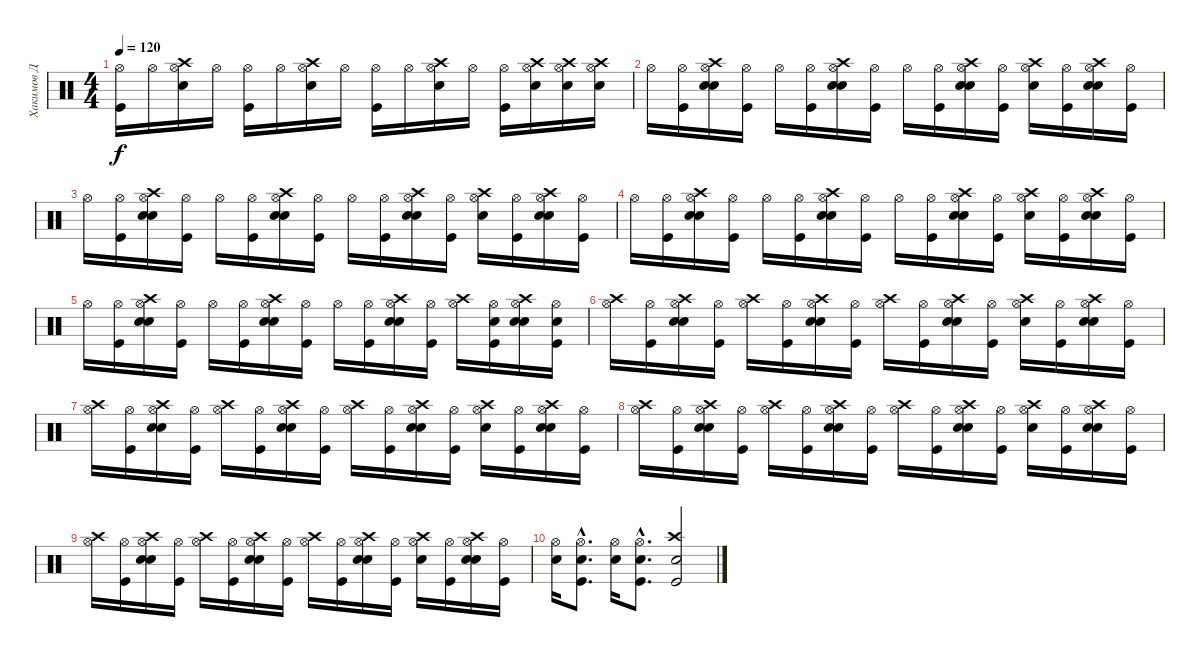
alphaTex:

\track ("Хакимов Д" "Хакимов Д") {instrument percussion}
\staff {score}
\articulation defaults
\ts (4 4)
\tempo 120
\clef neutral
\ks c
("Hi-Hat (open)" "Kick (hit)").16{dy f} "Hi-Hat (open)".16 ("Hi-Hat (open)" "Electric Snare (hit)" "Crash high (hit)").16 "Hi-Hat (open)".16 ("Hi-Hat (open)" "Kick (hit)").16 "Hi-Hat (open)".16 ("Hi-Hat (open)" "Electric Snare (hit)" "Crash high (hit)").16 "Hi-Hat (open)".16 ("Hi-Hat (open)" "Kick (hit)").16 "Hi-Hat (open)".16 ("Hi-Hat (open)" "Electric Snare (hit)" "Crash high (hit)").16 "Hi-Hat (open)".16 ("Hi-Hat (open)" "Kick (hit)").16 ("Hi-Hat (open)" "Snare (hit) 2" "Crash high (hit)").16 ("Hi-Hat (open)" "Electric Snare (hit)" "Crash high (hit)").16 ("Hi-Hat (open)" "Snare (hit) 2" "Crash high (hit)").16 |
"Hi-Hat (open)".16 ("Hi-Hat (open)" "Kick (hit)").16 ("Hi-Hat (open)" "Snare (hit) 2" "Crash high (hit)" "Electric Snare (hit)").16 ("Hi-Hat (open)" "Kick (hit)").16 "Hi-Hat (open)".16 ("Hi-Hat (open)" "Kick (hit)").16 ("Hi-Hat (open)" "Snare (hit) 2" "Crash high (hit)" "Electric Snare (hit)").16 ("Hi-Hat (open)" "Kick (hit)").16 "Hi-Hat (open)".16 ("Hi-Hat (open)" "Kick (hit)").16 ("Hi-Hat (open)" "Snare (hit) 2" "Crash high (hit)" "Electric Snare (hit)").16 ("Hi-Hat (open)" "Kick (hit)").16 ("Hi-Hat (open)" "Snare (hit) 2" "Crash high (hit)").16 ("Hi-Hat (open)" "Kick (hit)").16 ("Hi-Hat (open)" "Snare (hit) 2" "Crash high (hit)" "Electric Snare (hit)").16 ("Hi-Hat (open)" "Kick (hit)").16 |
"Hi-Hat (open)".16 ("Hi-Hat (open)" "Kick (hit)").16 ("Hi-Hat (open)" "Snare (hit) 2" "Crash high (hit)" "Electric Snare (hit)").16 ("Hi-Hat (open)" "Kick (hit)").16 "Hi-Hat (open)".16 ("Hi-Hat (open)" "Kick (hit)").16 ("Hi-Hat (open)" "Snare (hit) 2" "Crash high (hit)" "Electric Snare (hit)").16 ("Hi-Hat (open)" "Kick (hit)").16 "Hi-Hat (open)".16 ("Hi-Hat (open)" "Kick (hit)").16 ("Hi-Hat (open)" "Snare (hit) 2" "Crash high (hit)" "Electric Snare (hit)").16 ("Hi-Hat (open)" "Kick (hit)").16 ("Hi-Hat (open)" "Snare (hit) 2" "Crash high (hit)").16 ("Hi-Hat (open)" "Kick (hit)").16 ("Hi-Hat (open)" "Snare (hit) 2" "Crash high (hit)" "Electric Snare (hit)").16 ("Hi-Hat (open)" "Kick (hit)").16 |
"Hi-Hat (open)".16 ("Hi-Hat (open)" "Kick (hit)").16 ("Hi-Hat (open)" "Snare (hit) 2" "Crash high (hit)" "Electric Snare (hit)").16 ("Hi-Hat (open)" "Kick (hit)").16 "Hi-Hat (open)".16 ("Hi-Hat (open)" "Kick (hit)").16 ("Hi-Hat (open)" "Snare (hit) 2" "Crash high (hit)" "Electric Snare (hit)").16 ("Hi-Hat (open)" "Kick (hit)").16 "Hi-Hat (open)".16 ("Hi-Hat (open)" "Kick (hit)").16 ("Hi-Hat (open)" "Snare (hit) 2" "Crash high (hit)" "Electric Snare (hit)").16 ("Hi-Hat (open)" "Kick (hit)").16 ("Hi-Hat (open)" "Snare (hit) 2" "Crash high (hit)").16 ("Hi-Hat (open)" "Kick (hit)").16 ("Hi-Hat (open)" "Snare (hit) 2" "Crash high (hit)" "Electric Snare (hit)").16 ("Hi-Hat (open)" "Kick (hit)").16 |
"Hi-Hat (open)".16 ("Hi-Hat (open)" "Kick (hit)").16 ("Hi-Hat (open)" "Snare (hit) 2" "Crash high (hit)" "Electric Snare (hit)").16 ("Hi-Hat (open)" "Kick (hit)").16 "Hi-Hat (open)".16 ("Hi-Hat (open)" "Kick (hit)").16 ("Hi-Hat (open)" "Snare (hit) 2" "Crash high (hit)" "Electric Snare (hit)").16 ("Hi-Hat (open)" "Kick (hit)").16 "Hi-Hat (open)".16 ("Hi-Hat (open)" "Kick (hit)").16 ("Hi-Hat (open)" "Snare (hit) 2" "Crash high (hit)" "Electric Snare (hit)").16 ("Hi-Hat (open)" "Kick (hit)").16 ("Hi-Hat (open)" "Crash high (hit)").16 ("Hi-Hat (open)" "Kick (hit)" "Snare (hit) 2").16 ("Hi-Hat (open)" "Snare (hit) 2" "Crash high (hit)" "Electric Snare (hit)").16 ("Hi-Hat (open)" "Kick (hit)" "Snare (hit) 2").16 |
("Hi-Hat (open)" "Crash high (hit)").16 ("Hi-Hat (open)" "Kick (hit)").16 ("Hi-Hat (open)" "Snare (hit) 2" "Crash high (hit)" "Electric Snare (hit)").16 ("Hi-Hat (open)" "Kick (hit)").16 ("Hi-Hat (open)" "Crash high (hit)").16 ("Hi-Hat (open)" "Kick (hit)").16 ("Hi-Hat (open)" "Snare (hit) 2" "Crash high (hit)" "Electric Snare (hit)").16 ("Hi-Hat (open)" "Kick (hit)").16 ("Hi-Hat (open)" "Crash high (hit)").16 ("Hi-Hat (open)" "Kick (hit)").16 ("Hi-Hat (open)" "Snare (hit) 2" "Crash high (hit)" "Electric Snare (hit)").16 ("Hi-Hat (open)" "Kick (hit)").16 ("Hi-Hat (open)" "Snare (hit) 2" "Crash high (hit)").16 ("Hi-Hat (open)" "Kick (hit)").16 ("Hi-Hat (open)" "Snare (hit) 2" "Crash high (hit)" "Electric Snare (hit)").16 ("Hi-Hat (open)" "Kick (hit)").16 |
("Hi-Hat (open)" "Crash high (hit)").16 ("Hi-Hat (open)" "Kick (hit)").16 ("Hi-Hat (open)" "Snare (hit) 2" "Crash high (hit)" "Electric Snare (hit)").16 ("Hi-Hat (open)" "Kick (hit)").16 ("Hi-Hat (open)" "Crash high (hit)").16 ("Hi-Hat (open)" "Kick (hit)").16 ("Hi-Hat (open)" "Snare (hit) 2" "Crash high (hit)" "Electric Snare (hit)").16 ("Hi-Hat (open)" "Kick (hit)").16 ("Hi-Hat (open)" "Crash high (hit)").16 ("Hi-Hat (open)" "Kick (hit)").16 ("Hi-Hat (open)" "Snare (hit) 2" "Crash high (hit)" "Electric Snare (hit)").16 ("Hi-Hat (open)" "Kick (hit)").16 ("Hi-Hat (open)" "Snare (hit) 2" "Crash high (hit)").16 ("Hi-Hat (open)" "Kick (hit)").16 ("Hi-Hat (open)" "Snare (hit) 2" "Crash high (hit)" "Electric Snare (hit)").16 ("Hi-Hat (open)" "Kick (hit)").16 |
("Hi-Hat (open)" "Crash high (hit)").16 ("Hi-Hat (open)" "Kick (hit)").16 ("Hi-Hat (open)" "Snare (hit) 2" "Crash high (hit)" "Electric Snare (hit)").16 ("Hi-Hat (open)" "Kick (hit)").16 ("Hi-Hat (open)" "Crash high (hit)").16 ("Hi-Hat (open)" "Kick (hit)").16 ("Hi-Hat (open)" "Snare (hit) 2" "Crash high (hit)" "Electric Snare (hit)").16 ("Hi-Hat (open)" "Kick (hit)").16 ("Hi-Hat (open)" "Crash high (hit)").16 ("Hi-Hat (open)" "Kick (hit)").16 ("Hi-Hat (open)" "Snare (hit) 2" "Crash high (hit)" "Electric Snare (hit)").16 ("Hi-Hat (open)" "Kick (hit)").16 ("Hi-Hat (open)" "Snare (hit) 2" "Crash high (hit)").16 ("Hi-Hat (open)" "Kick (hit)").16 ("Hi-Hat (open)" "Snare (hit) 2" "Crash high (hit)" "Electric Snare (hit)").16 ("Hi-Hat (open)" "Kick (hit)").16 |
("Hi-Hat (open)" "Crash high (hit)").16 ("Hi-Hat (open)" "Kick (hit)").16 ("Hi-Hat (open)" "Snare (hit) 2" "Crash high (hit)" "Electric Snare (hit)").16 ("Hi-Hat (open)" "Kick (hit)").16 ("Hi-Hat (open)" "Crash high (hit)").16 ("Hi-Hat (open)" "Kick (hit)").16 ("Hi-Hat (open)" "Snare (hit) 2" "Crash high (hit)" "Electric Snare (hit)").16 ("Hi-Hat (open)" "Kick (hit)").16 ("Hi-Hat (open)" "Crash high (hit)").16 ("Hi-Hat (open)" "Kick (hit)").16 ("Hi-Hat (open)" "Snare (hit) 2" "Crash high (hit)" "Electric Snare (hit)").16 ("Hi-Hat (open)" "Kick (hit)").16 ("Hi-Hat (open)" "Snare (hit) 2" "Crash high (hit)").16 ("Hi-Hat (open)" "Kick (hit)").16 ("Hi-Hat (open)" "Snare (hit) 2" "Crash high (hit)" "Electric Snare (hit)").16 ("Hi-Hat (open)" "Kick (hit)").16 |
("Hi-Hat (open)" "Snare (hit) 2").16 ("Hi-Hat (open)"{hac} "Kick (hit)"{hac} "Snare (hit) 2"{hac}).8{d} ("Hi-Hat (open)" "Snare (hit) 2").16 ("Hi-Hat (open)"{hac} "Kick (hit)"{hac} "Snare (hit) 2"{hac}).8{d} ("Crash high (hit)" "Kick (hit)" "Snare (hit) 2").2
